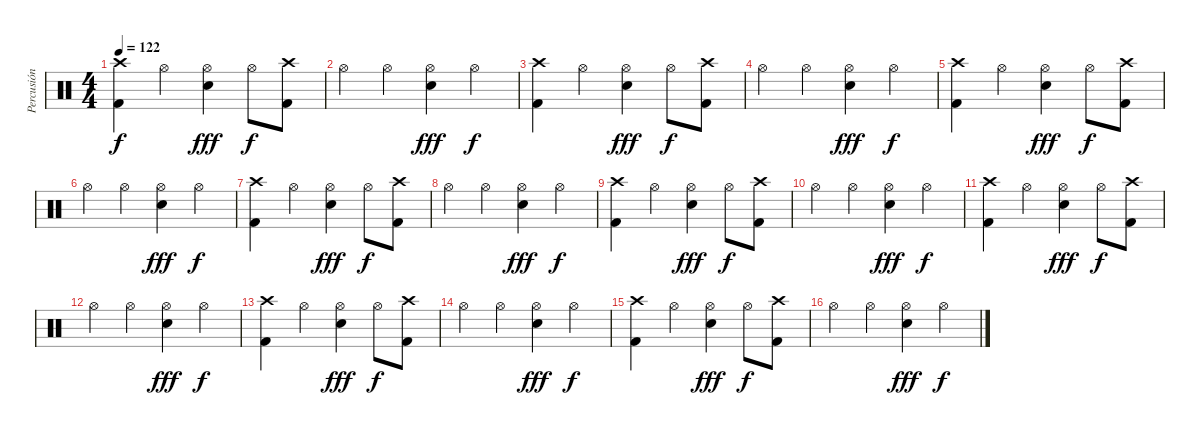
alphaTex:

\track ("Percusión" "Percusión") {instrument percussion}
\staff {score}
\articulation defaults
\ts (4 4)
\tempo 122
\clef neutral
\ks c
("Crash high (hit)" "Kick (hit) 2").4{dy f} "Hi-Hat (open)".4 ("Hi-Hat (open)" "Electric Snare (hit)").4{dy fff} "Hi-Hat (open)".8{dy f} ("Crash high (hit)" "Kick (hit) 2").8 |
"Hi-Hat (open)".4 "Hi-Hat (open)".4 ("Hi-Hat (open)" "Electric Snare (hit)").4{dy fff} "Hi-Hat (open)".4{dy f} |
("Crash high (hit)" "Kick (hit) 2").4 "Hi-Hat (open)".4 ("Hi-Hat (open)" "Electric Snare (hit)").4{dy fff} "Hi-Hat (open)".8{dy f} ("Crash high (hit)" "Kick (hit) 2").8 |
"Hi-Hat (open)".4 "Hi-Hat (open)".4 ("Hi-Hat (open)" "Electric Snare (hit)").4{dy fff} "Hi-Hat (open)".4{dy f} |
("Crash high (hit)" "Kick (hit) 2").4 "Hi-Hat (open)".4 ("Hi-Hat (open)" "Electric Snare (hit)").4{dy fff} "Hi-Hat (open)".8{dy f} ("Crash high (hit)" "Kick (hit) 2").8 |
"Hi-Hat (open)".4 "Hi-Hat (open)".4 ("Hi-Hat (open)" "Electric Snare (hit)").4{dy fff} "Hi-Hat (open)".4{dy f} |
("Crash high (hit)" "Kick (hit) 2").4 "Hi-Hat (open)".4 ("Hi-Hat (open)" "Electric Snare (hit)").4{dy fff} "Hi-Hat (open)".8{dy f} ("Crash high (hit)" "Kick (hit) 2").8 |
"Hi-Hat (open)".4 "Hi-Hat (open)".4 ("Hi-Hat (open)" "Electric Snare (hit)").4{dy fff} "Hi-Hat (open)".4{dy f} |
("Crash high (hit)" "Kick (hit) 2").4 "Hi-Hat (open)".4 ("Hi-Hat (open)" "Electric Snare (hit)").4{dy fff} "Hi-Hat (open)".8{dy f} ("Crash high (hit)" "Kick (hit) 2").8 |
"Hi-Hat (open)".4 "Hi-Hat (open)".4 ("Hi-Hat (open)" "Electric Snare (hit)").4{dy fff} "Hi-Hat (open)".4{dy f} |
("Crash high (hit)" "Kick (hit) 2").4 "Hi-Hat (open)".4 ("Hi-Hat (open)" "Electric Snare (hit)").4{dy fff} "Hi-Hat (open)".8{dy f} ("Crash high (hit)" "Kick (hit) 2").8 |
"Hi-Hat (open)".4 "Hi-Hat (open)".4 ("Hi-Hat (open)" "Electric Snare (hit)").4{dy fff} "Hi-Hat (open)".4{dy f} |
("Crash high (hit)" "Kick (hit) 2").4 "Hi-Hat (open)".4 ("Hi-Hat (open)" "Electric Snare (hit)").4{dy fff} "Hi-Hat (open)".8{dy f} ("Crash high (hit)" "Kick (hit) 2").8 |
"Hi-Hat (open)".4 "Hi-Hat (open)".4 ("Hi-Hat (open)" "Electric Snare (hit)").4{dy fff} "Hi-Hat (open)".4{dy f} |
("Crash high (hit)" "Kick (hit) 2").4 "Hi-Hat (open)".4 ("Hi-Hat (open)" "Electric Snare (hit)").4{dy fff} "Hi-Hat (open)".8{dy f} ("Crash high (hit)" "Kick (hit) 2").8 |
"Hi-Hat (open)".4 "Hi-Hat (open)".4 ("Hi-Hat (open)" "Electric Snare (hit)").4{dy fff} "Hi-Hat (open)".4{dy f}
